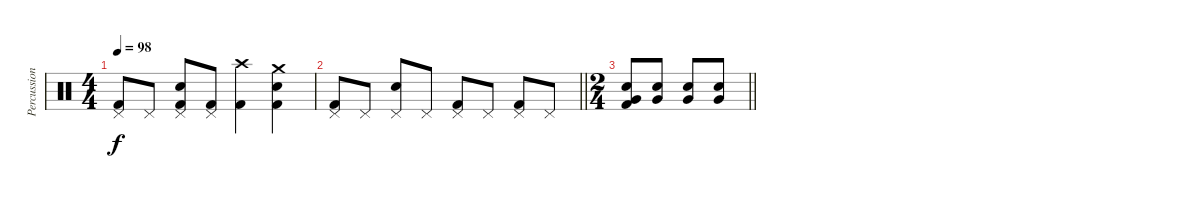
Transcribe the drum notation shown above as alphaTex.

\track ("Percussion" "Percussion") {instrument percussion}
\staff {score}
\articulation defaults
\ts (4 4)
\tempo 98
\clef neutral
\ks c
("Pedal Hi-Hat (hit)" "Kick (hit) 2").8{dy f} "Pedal Hi-Hat (hit)".8 ("Pedal Hi-Hat (hit)" "Snare (hit) 2" "Kick (hit) 2").8 ("Pedal Hi-Hat (hit)" "Kick (hit) 2").8 ("Crash high (hit)" "Kick (hit) 2").4 ("Crash medium (hit)" "Snare (hit) 2" "Kick (hit) 2").4 |
\barLineRight lightlight
("Pedal Hi-Hat (hit)" "Kick (hit) 2").8 "Pedal Hi-Hat (hit)".8 ("Pedal Hi-Hat (hit)" "Snare (hit) 2").8 "Pedal Hi-Hat (hit)".8 ("Pedal Hi-Hat (hit)" "Kick (hit) 2").8 "Pedal Hi-Hat (hit)".8 ("Pedal Hi-Hat (hit)" "Kick (hit) 2").8 "Pedal Hi-Hat (hit)".8 |
\ts (2 4)
\barLineRight lightlight
("Very Low Tom (hit)" "Snare (hit) 2" "Kick (hit) 2").8 ("Very Low Tom (hit)" "Snare (hit) 2").8 ("Very Low Tom (hit)" "Snare (hit) 2").8 ("Very Low Tom (hit)" "Snare (hit) 2").8
